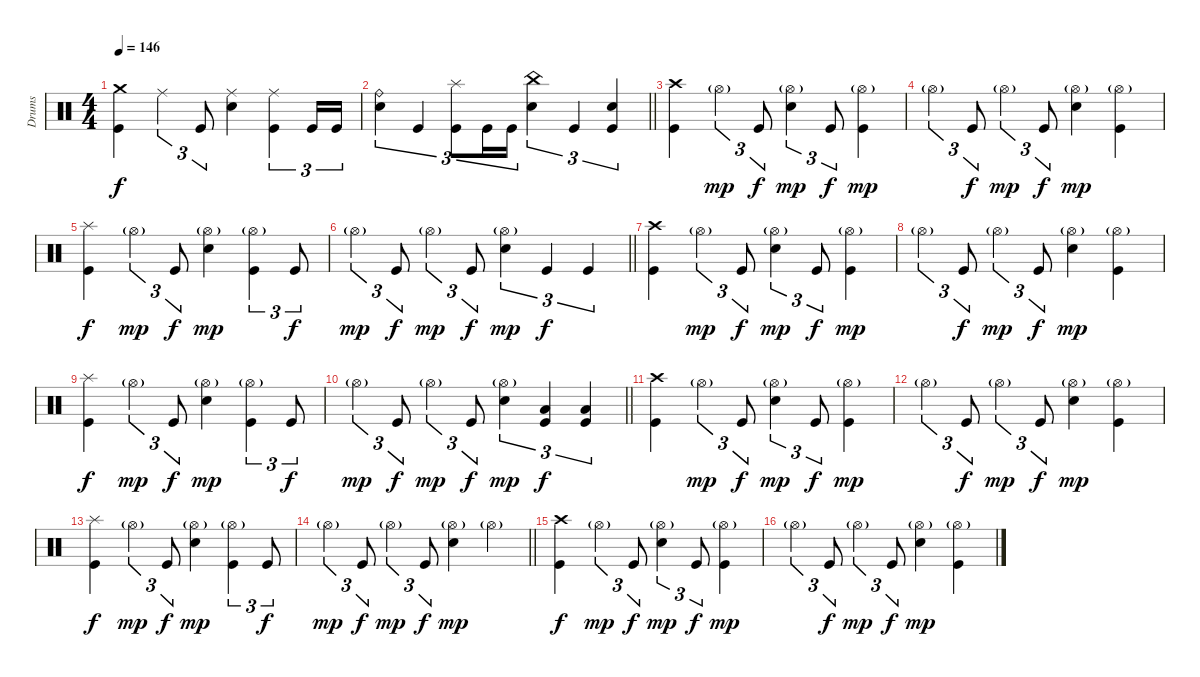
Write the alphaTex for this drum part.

\track ("Drums" "Drums") {instrument percussion}
\staff
\articulation defaults
\ts (4 4)
\tempo 146
\clef neutral
\ks c
("Crash medium (hit)" "Kick (hit)").4{dy f} "Ride (middle)".4{tu (3 2)} "Kick (hit)".8{tu (3 2)} ("Ride (middle)" "Electric Snare (hit)").4 ("Ride (middle)" "Kick (hit)").4{tu (3 2)} "Kick (hit)".16{tu (3 2)} "Kick (hit)".16{tu (3 2)} |
\barLineRight lightlight
("Ride (bell)" "Electric Snare (hit)").4{tu (3 2)} "Kick (hit)".4{tu (3 2)} ("Splash (hit)" "Kick (hit)").8{tu (3 2)} "Kick (hit)".16{tu (3 2)} "Kick (hit)".16{tu (3 2)} ("China (hit)" "Electric Snare (hit)").4{tu (3 2)} "Kick (hit)".4{tu (3 2)} ("Electric Snare (hit)" "Kick (hit)").4{tu (3 2)} |
\section ("" "")
("Crash high (hit)" "Kick (hit)").4 "Hi-Hat (open)"{g}.4{tu (3 2) dy mp} "Kick (hit)".8{tu (3 2) dy f} ("Hi-Hat (open)"{g} "Electric Snare (hit)").4{tu (3 2) dy mp} "Kick (hit)".8{tu (3 2) dy f} ("Hi-Hat (open)"{g} "Kick (hit)").4{dy mp} |
"Hi-Hat (open)"{g}.4{tu (3 2)} "Kick (hit)".8{tu (3 2) dy f} "Hi-Hat (open)"{g}.4{tu (3 2) dy mp} "Kick (hit)".8{tu (3 2) dy f} ("Hi-Hat (open)"{g} "Electric Snare (hit)").4{dy mp} ("Hi-Hat (open)"{g} "Kick (hit)").4 |
("Splash (hit)" "Kick (hit)").4{dy f} "Hi-Hat (open)"{g}.4{tu (3 2) dy mp} "Kick (hit)".8{tu (3 2) dy f} ("Hi-Hat (open)"{g} "Electric Snare (hit)").4{dy mp} ("Hi-Hat (open)"{g} "Kick (hit)").4{tu (3 2)} "Kick (hit)".8{tu (3 2) dy f} |
\barLineRight lightlight "Hi-Hat (open)"{g}.4{tu (3 2) dy mp} "Kick (hit)".8{tu (3 2) dy f} "Hi-Hat (open)"{g}.4{tu (3 2) dy mp} "Kick (hit)".8{tu (3 2) dy f}
("Hi-Hat (open)"{g} "Electric Snare (hit)").4{tu (3 2) dy mp} "Kick (hit)".4{tu (3 2) dy f} "Kick (hit)".4{tu (3 2)} |
("Crash high (hit)" "Kick (hit)").4 "Hi-Hat (open)"{g}.4{tu (3 2) dy mp} "Kick (hit)".8{tu (3 2) dy f} ("Hi-Hat (open)"{g} "Electric Snare (hit)").4{tu (3 2) dy mp} "Kick (hit)".8{tu (3 2) dy f} ("Hi-Hat (open)"{g} "Kick (hit)").4{dy mp} |
"Hi-Hat (open)"{g}.4{tu (3 2)} "Kick (hit)".8{tu (3 2) dy f} "Hi-Hat (open)"{g}.4{tu (3 2) dy mp} "Kick (hit)".8{tu (3 2) dy f} ("Hi-Hat (open)"{g} "Electric Snare (hit)").4{dy mp} ("Hi-Hat (open)"{g} "Kick (hit)").4 |
("Splash (hit)" "Kick (hit)").4{dy f} "Hi-Hat (open)"{g}.4{tu (3 2) dy mp} "Kick (hit)".8{tu (3 2) dy f} ("Hi-Hat (open)"{g} "Electric Snare (hit)").4{dy mp} ("Hi-Hat (open)"{g} "Kick (hit)").4{tu (3 2)} "Kick (hit)".8{tu (3 2) dy f} |
\barLineRight lightlight "Hi-Hat (open)"{g}.4{tu (3 2) dy mp} "Kick (hit)".8{tu (3 2) dy f} "Hi-Hat (open)"{g}.4{tu (3 2) dy mp} "Kick (hit)".8{tu (3 2) dy f}
("Hi-Hat (open)"{g} "Electric Snare (hit)").4{tu (3 2) dy mp} ("Low Floor Tom (hit)" "Kick (hit)").4{tu (3 2) dy f} ("Low Floor Tom (hit)" "Kick (hit)").4{tu (3 2)} |
("Crash high (hit)" "Kick (hit)").4 "Hi-Hat (open)"{g}.4{tu (3 2) dy mp} "Kick (hit)".8{tu (3 2) dy f} ("Hi-Hat (open)"{g} "Electric Snare (hit)").4{tu (3 2) dy mp} "Kick (hit)".8{tu (3 2) dy f} ("Hi-Hat (open)"{g} "Kick (hit)").4{dy mp} |
"Hi-Hat (open)"{g}.4{tu (3 2)} "Kick (hit)".8{tu (3 2) dy f} "Hi-Hat (open)"{g}.4{tu (3 2) dy mp} "Kick (hit)".8{tu (3 2) dy f} ("Hi-Hat (open)"{g} "Electric Snare (hit)").4{dy mp} ("Hi-Hat (open)"{g} "Kick (hit)").4 |
("Splash (hit)" "Kick (hit)").4{dy f} "Hi-Hat (open)"{g}.4{tu (3 2) dy mp} "Kick (hit)".8{tu (3 2) dy f} ("Hi-Hat (open)"{g} "Electric Snare (hit)").4{dy mp} ("Hi-Hat (open)"{g} "Kick (hit)").4{tu (3 2)} "Kick (hit)".8{tu (3 2) dy f} |
\barLineRight lightlight "Hi-Hat (open)"{g}.4{tu (3 2) dy mp} "Kick (hit)".8{tu (3 2) dy f} "Hi-Hat (open)"{g}.4{tu (3 2) dy mp} "Kick (hit)".8{tu (3 2) dy f}
("Hi-Hat (open)"{g} "Electric Snare (hit)").4{dy mp} "Hi-Hat (open)"{g}.4 |
("Crash high (hit)" "Kick (hit)").4{dy f} "Hi-Hat (open)"{g}.4{tu (3 2) dy mp} "Kick (hit)".8{tu (3 2) dy f} ("Hi-Hat (open)"{g} "Electric Snare (hit)").4{tu (3 2) dy mp} "Kick (hit)".8{tu (3 2) dy f} ("Hi-Hat (open)"{g} "Kick (hit)").4{dy mp} |
"Hi-Hat (open)"{g}.4{tu (3 2)} "Kick (hit)".8{tu (3 2) dy f} "Hi-Hat (open)"{g}.4{tu (3 2) dy mp} "Kick (hit)".8{tu (3 2) dy f} ("Hi-Hat (open)"{g} "Electric Snare (hit)").4{dy mp} ("Hi-Hat (open)"{g} "Kick (hit)").4
